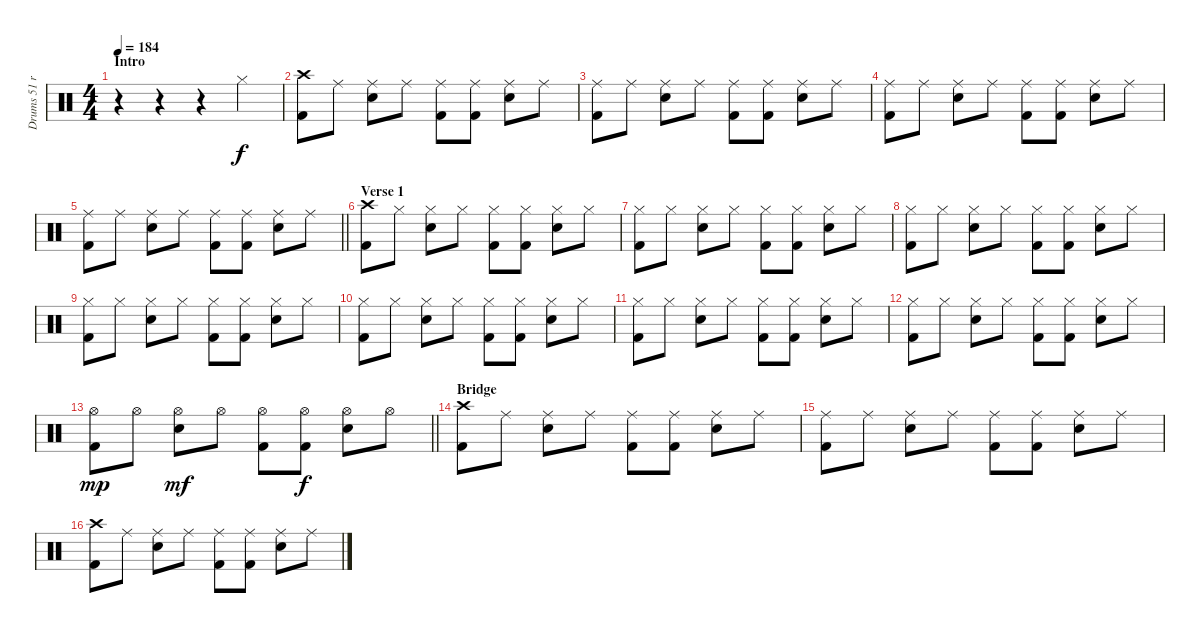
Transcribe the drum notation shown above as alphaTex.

\track ("Drums 51 ride" "Drums 51 r") {mute instrument percussion}
\staff {score}
\articulation defaults
\ts (4 4)
\section ("" "Intro")
\tempo 184
\clef neutral
\ks c
r.4{dy f} r.4 r.4 "Hi-Hat (closed)".4 |
("Crash high (hit)" "Kick (hit) 2").8 "Ride (middle)".8 ("Ride (middle)" "Snare (hit) 2").8 "Ride (middle)".8 ("Ride (middle)" "Kick (hit) 2").8 ("Ride (middle)" "Kick (hit) 2").8 ("Ride (middle)" "Snare (hit) 2").8 "Ride (middle)".8 |
("Ride (middle)" "Kick (hit) 2").8 "Ride (middle)".8 ("Ride (middle)" "Snare (hit) 2").8 "Ride (middle)".8 ("Ride (middle)" "Kick (hit) 2").8 ("Ride (middle)" "Kick (hit) 2").8 ("Ride (middle)" "Snare (hit) 2").8 "Ride (middle)".8 |
("Ride (middle)" "Kick (hit) 2").8 "Ride (middle)".8 ("Ride (middle)" "Snare (hit) 2").8 "Ride (middle)".8 ("Ride (middle)" "Kick (hit) 2").8 ("Ride (middle)" "Kick (hit) 2").8 ("Ride (middle)" "Snare (hit) 2").8 "Ride (middle)".8 |
\barLineRight lightlight
("Ride (middle)" "Kick (hit) 2").8 "Ride (middle)".8 ("Ride (middle)" "Snare (hit) 2").8 "Ride (middle)".8 ("Ride (middle)" "Kick (hit) 2").8 ("Ride (middle)" "Kick (hit) 2").8 ("Ride (middle)" "Snare (hit) 2").8 "Ride (middle)".8 |
\section ("" "Verse 1")
("Crash high (hit)" "Kick (hit) 2").8 "Hi-Hat (closed)".8 ("Hi-Hat (closed)" "Snare (hit) 2").8 "Hi-Hat (closed)".8 ("Hi-Hat (closed)" "Kick (hit) 2").8 ("Hi-Hat (closed)" "Kick (hit) 2").8 ("Hi-Hat (closed)" "Snare (hit) 2").8 "Hi-Hat (closed)".8 |
("Hi-Hat (closed)" "Kick (hit) 2").8 "Hi-Hat (closed)".8 ("Hi-Hat (closed)" "Snare (hit) 2").8 "Hi-Hat (closed)".8 ("Hi-Hat (closed)" "Kick (hit) 2").8 ("Hi-Hat (closed)" "Kick (hit) 2").8 ("Hi-Hat (closed)" "Snare (hit) 2").8 "Hi-Hat (closed)".8 |
("Hi-Hat (closed)" "Kick (hit) 2").8 "Hi-Hat (closed)".8 ("Hi-Hat (closed)" "Snare (hit) 2").8 "Hi-Hat (closed)".8 ("Hi-Hat (closed)" "Kick (hit) 2").8 ("Hi-Hat (closed)" "Kick (hit) 2").8 ("Hi-Hat (closed)" "Snare (hit) 2").8 "Hi-Hat (closed)".8 |
("Hi-Hat (closed)" "Kick (hit) 2").8 "Hi-Hat (closed)".8 ("Hi-Hat (closed)" "Snare (hit) 2").8 "Hi-Hat (closed)".8 ("Hi-Hat (closed)" "Kick (hit) 2").8 ("Hi-Hat (closed)" "Kick (hit) 2").8 ("Hi-Hat (closed)" "Snare (hit) 2").8 "Hi-Hat (closed)".8 |
("Hi-Hat (closed)" "Kick (hit) 2").8 "Hi-Hat (closed)".8 ("Hi-Hat (closed)" "Snare (hit) 2").8 "Hi-Hat (closed)".8 ("Hi-Hat (closed)" "Kick (hit) 2").8 ("Hi-Hat (closed)" "Kick (hit) 2").8 ("Hi-Hat (closed)" "Snare (hit) 2").8 "Hi-Hat (closed)".8 |
("Hi-Hat (closed)" "Kick (hit) 2").8 "Hi-Hat (closed)".8 ("Hi-Hat (closed)" "Snare (hit) 2").8 "Hi-Hat (closed)".8 ("Hi-Hat (closed)" "Kick (hit) 2").8 ("Hi-Hat (closed)" "Kick (hit) 2").8 ("Hi-Hat (closed)" "Snare (hit) 2").8 "Hi-Hat (closed)".8 |
("Hi-Hat (closed)" "Kick (hit) 2").8 "Hi-Hat (closed)".8 ("Hi-Hat (closed)" "Snare (hit) 2").8 "Hi-Hat (closed)".8 ("Hi-Hat (closed)" "Kick (hit) 2").8 ("Hi-Hat (closed)" "Kick (hit) 2").8 ("Hi-Hat (closed)" "Snare (hit) 2").8 "Hi-Hat (closed)".8 |
\barLineRight lightlight
("Hi-Hat (open)" "Kick (hit) 2").8{dy mp} "Hi-Hat (open)".8 ("Hi-Hat (open)" "Snare (hit) 2").8{dy mf} "Hi-Hat (open)".8 ("Hi-Hat (open)" "Kick (hit) 2").8 ("Hi-Hat (open)" "Kick (hit) 2").8{dy f} ("Hi-Hat (open)" "Snare (hit) 2").8 "Hi-Hat (open)".8 |
\section ("" "Bridge")
("Crash high (hit)" "Kick (hit) 2").8 "Ride (middle)".8 ("Ride (middle)" "Snare (hit) 2").8 "Ride (middle)".8 ("Ride (middle)" "Kick (hit) 2").8 ("Ride (middle)" "Kick (hit) 2").8 ("Ride (middle)" "Snare (hit) 2").8 "Ride (middle)".8 |
("Ride (middle)" "Kick (hit) 2").8 "Ride (middle)".8 ("Ride (middle)" "Snare (hit) 2").8 "Ride (middle)".8 ("Ride (middle)" "Kick (hit) 2").8 ("Ride (middle)" "Kick (hit) 2").8 ("Ride (middle)" "Snare (hit) 2").8 "Ride (middle)".8 |
("Crash high (hit)" "Kick (hit) 2").8 "Ride (middle)".8 ("Ride (middle)" "Snare (hit) 2").8 "Ride (middle)".8 ("Ride (middle)" "Kick (hit) 2").8 ("Ride (middle)" "Kick (hit) 2").8 ("Ride (middle)" "Snare (hit) 2").8 "Ride (middle)".8
